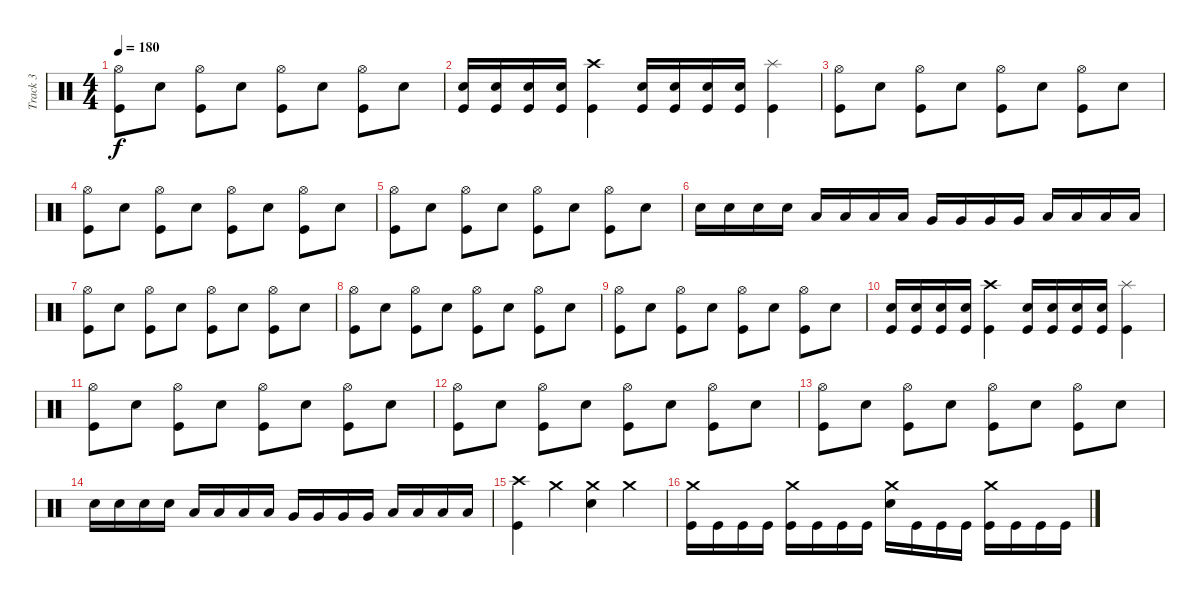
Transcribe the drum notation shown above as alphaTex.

\track ("Track 3" "Track 3") {instrument percussion}
\staff {score}
\articulation defaults
\ts (4 4)
\tempo 180
\clef neutral
\ks c
("Hi-Hat (open)" "Kick (hit)").8{dy f} "Electric Snare (hit)".8 ("Hi-Hat (open)" "Kick (hit)").8 "Electric Snare (hit)".8 ("Hi-Hat (open)" "Kick (hit)").8 "Electric Snare (hit)".8 ("Hi-Hat (open)" "Kick (hit)").8 "Electric Snare (hit)".8 |
("Electric Snare (hit)" "Kick (hit)").16 ("Electric Snare (hit)" "Kick (hit)").16 ("Electric Snare (hit)" "Kick (hit)").16 ("Electric Snare (hit)" "Kick (hit)").16 ("Crash high (hit)" "Kick (hit)").4 ("Electric Snare (hit)" "Kick (hit)").16 ("Electric Snare (hit)" "Kick (hit)").16 ("Electric Snare (hit)" "Kick (hit)").16 ("Electric Snare (hit)" "Kick (hit)").16 ("Splash (hit)" "Kick (hit)").4 |
("Hi-Hat (open)" "Kick (hit)").8 "Electric Snare (hit)".8 ("Hi-Hat (open)" "Kick (hit)").8 "Electric Snare (hit)".8 ("Hi-Hat (open)" "Kick (hit)").8 "Electric Snare (hit)".8 ("Hi-Hat (open)" "Kick (hit)").8 "Electric Snare (hit)".8 |
("Hi-Hat (open)" "Kick (hit)").8 "Electric Snare (hit)".8 ("Hi-Hat (open)" "Kick (hit)").8 "Electric Snare (hit)".8 ("Hi-Hat (open)" "Kick (hit)").8 "Electric Snare (hit)".8 ("Hi-Hat (open)" "Kick (hit)").8 "Electric Snare (hit)".8 |
("Hi-Hat (open)" "Kick (hit)").8 "Electric Snare (hit)".8 ("Hi-Hat (open)" "Kick (hit)").8 "Electric Snare (hit)".8 ("Hi-Hat (open)" "Kick (hit)").8 "Electric Snare (hit)".8 ("Hi-Hat (open)" "Kick (hit)").8 "Electric Snare (hit)".8 |
"Electric Snare (hit)".16 "Electric Snare (hit)".16 "Electric Snare (hit)".16 "Electric Snare (hit)".16 "Low Tom (hit)".16 "Low Tom (hit)".16 "Low Tom (hit)".16 "Low Tom (hit)".16 "Very Low Tom (hit)".16 "Very Low Tom (hit)".16 "Very Low Tom (hit)".16 "Very Low Tom (hit)".16 "Low Floor Tom (hit)".16 "Low Floor Tom (hit)".16 "Low Floor Tom (hit)".16 "Low Floor Tom (hit)".16 |
("Hi-Hat (open)" "Kick (hit)").8 "Electric Snare (hit)".8 ("Hi-Hat (open)" "Kick (hit)").8 "Electric Snare (hit)".8 ("Hi-Hat (open)" "Kick (hit)").8 "Electric Snare (hit)".8 ("Hi-Hat (open)" "Kick (hit)").8 "Electric Snare (hit)".8 |
("Hi-Hat (open)" "Kick (hit)").8 "Electric Snare (hit)".8 ("Hi-Hat (open)" "Kick (hit)").8 "Electric Snare (hit)".8 ("Hi-Hat (open)" "Kick (hit)").8 "Electric Snare (hit)".8 ("Hi-Hat (open)" "Kick (hit)").8 "Electric Snare (hit)".8 |
("Hi-Hat (open)" "Kick (hit)").8 "Electric Snare (hit)".8 ("Hi-Hat (open)" "Kick (hit)").8 "Electric Snare (hit)".8 ("Hi-Hat (open)" "Kick (hit)").8 "Electric Snare (hit)".8 ("Hi-Hat (open)" "Kick (hit)").8 "Electric Snare (hit)".8 |
("Electric Snare (hit)" "Kick (hit)").16 ("Electric Snare (hit)" "Kick (hit)").16 ("Electric Snare (hit)" "Kick (hit)").16 ("Electric Snare (hit)" "Kick (hit)").16 ("Crash high (hit)" "Kick (hit)").4 ("Electric Snare (hit)" "Kick (hit)").16 ("Electric Snare (hit)" "Kick (hit)").16 ("Electric Snare (hit)" "Kick (hit)").16 ("Electric Snare (hit)" "Kick (hit)").16 ("Splash (hit)" "Kick (hit)").4 |
("Hi-Hat (open)" "Kick (hit)").8 "Electric Snare (hit)".8 ("Hi-Hat (open)" "Kick (hit)").8 "Electric Snare (hit)".8 ("Hi-Hat (open)" "Kick (hit)").8 "Electric Snare (hit)".8 ("Hi-Hat (open)" "Kick (hit)").8 "Electric Snare (hit)".8 |
("Hi-Hat (open)" "Kick (hit)").8 "Electric Snare (hit)".8 ("Hi-Hat (open)" "Kick (hit)").8 "Electric Snare (hit)".8 ("Hi-Hat (open)" "Kick (hit)").8 "Electric Snare (hit)".8 ("Hi-Hat (open)" "Kick (hit)").8 "Electric Snare (hit)".8 |
("Hi-Hat (open)" "Kick (hit)").8 "Electric Snare (hit)".8 ("Hi-Hat (open)" "Kick (hit)").8 "Electric Snare (hit)".8 ("Hi-Hat (open)" "Kick (hit)").8 "Electric Snare (hit)".8 ("Hi-Hat (open)" "Kick (hit)").8 "Electric Snare (hit)".8 |
"Electric Snare (hit)".16 "Electric Snare (hit)".16 "Electric Snare (hit)".16 "Electric Snare (hit)".16 "Low Tom (hit)".16 "Low Tom (hit)".16 "Low Tom (hit)".16 "Low Tom (hit)".16 "Very Low Tom (hit)".16 "Very Low Tom (hit)".16 "Very Low Tom (hit)".16 "Very Low Tom (hit)".16 "Low Floor Tom (hit)".16 "Low Floor Tom (hit)".16 "Low Floor Tom (hit)".16 "Low Floor Tom (hit)".16 |
("Crash high (hit)" "Kick (hit)").4 "Crash medium (hit)".4 ("Crash medium (hit)" "Electric Snare (hit)").4 "Crash medium (hit)".4 |
("Crash medium (hit)" "Kick (hit)").16 "Kick (hit)".16 "Kick (hit)".16 "Kick (hit)".16 ("Crash medium (hit)" "Kick (hit)").16 "Kick (hit)".16 "Kick (hit)".16 "Kick (hit)".16 ("Crash medium (hit)" "Electric Snare (hit)").16 "Kick (hit)".16 "Kick (hit)".16 "Kick (hit)".16 ("Crash medium (hit)" "Kick (hit)").16 "Kick (hit)".16 "Kick (hit)".16 "Kick (hit)".16
